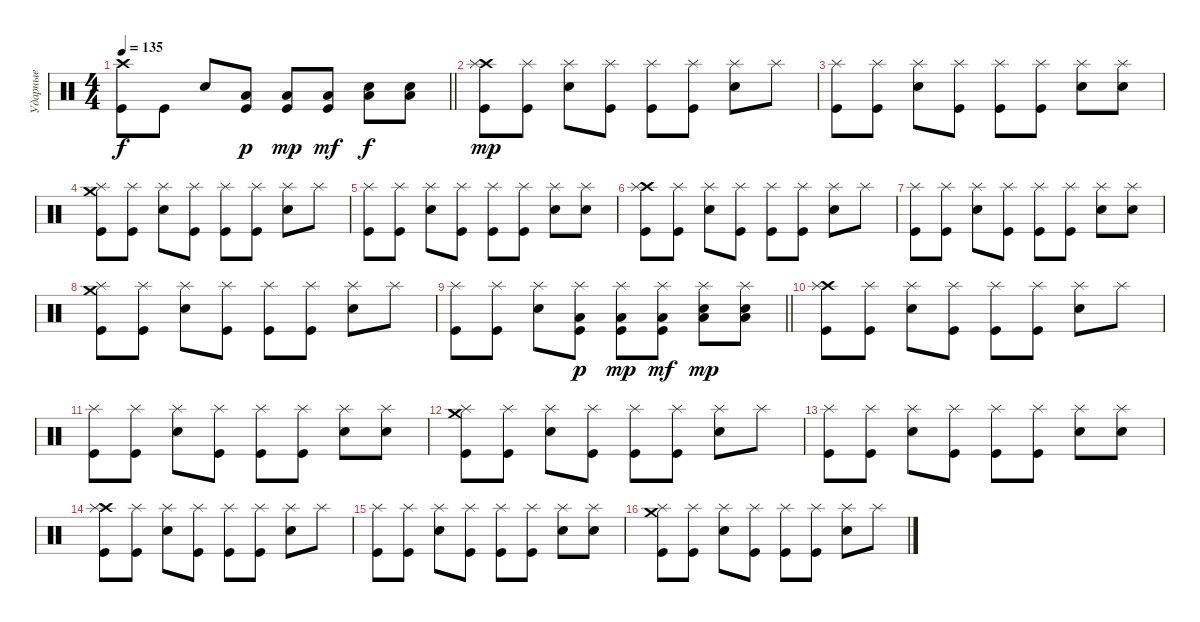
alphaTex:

\track ("Ударные" "Ударные") {instrument percussion}
\staff
\articulation defaults
\ts (4 4)
\tempo 135
\clef neutral
\barLineRight lightlight
\ks c
("Crash high (hit)" "Kick (hit)").8{dy f} "Kick (hit)".8 "Snare (hit) 2".8 ("Low Floor Tom (hit)" "Kick (hit)").8{dy p} ("Low Floor Tom (hit)" "Kick (hit)").8{dy mp} ("Low Floor Tom (hit)" "Kick (hit)").8{dy mf} ("Low Floor Tom (hit)" "Snare (hit) 2").8{dy f} ("Low Floor Tom (hit)" "Snare (hit) 2").8 |
("Crash high (hit)" "Splash (hit)" "Kick (hit)").8{dy mp} ("Splash (hit)" "Kick (hit)").8 ("Splash (hit)" "Snare (hit) 2").8 ("Splash (hit)" "Kick (hit)").8 ("Splash (hit)" "Kick (hit)").8 ("Splash (hit)" "Kick (hit)").8 ("Splash (hit)" "Snare (hit) 2").8 "Splash (hit)".8 |
("Splash (hit)" "Kick (hit)").8 ("Splash (hit)" "Kick (hit)").8 ("Splash (hit)" "Snare (hit) 2").8 ("Splash (hit)" "Kick (hit)").8 ("Splash (hit)" "Kick (hit)").8 ("Splash (hit)" "Kick (hit)").8 ("Splash (hit)" "Snare (hit) 2").8 ("Splash (hit)" "Snare (hit) 2").8 |
("Crash medium (hit)" "Splash (hit)" "Kick (hit)").8 ("Splash (hit)" "Kick (hit)").8 ("Splash (hit)" "Snare (hit) 2").8 ("Splash (hit)" "Kick (hit)").8 ("Splash (hit)" "Kick (hit)").8 ("Splash (hit)" "Kick (hit)").8 ("Splash (hit)" "Snare (hit) 2").8 "Splash (hit)".8 |
("Splash (hit)" "Kick (hit)").8 ("Splash (hit)" "Kick (hit)").8 ("Splash (hit)" "Snare (hit) 2").8 ("Splash (hit)" "Kick (hit)").8 ("Splash (hit)" "Kick (hit)").8 ("Splash (hit)" "Kick (hit)").8 ("Splash (hit)" "Snare (hit) 2").8 ("Splash (hit)" "Snare (hit) 2").8 |
("Crash high (hit)" "Splash (hit)" "Kick (hit)").8 ("Splash (hit)" "Kick (hit)").8 ("Splash (hit)" "Snare (hit) 2").8 ("Splash (hit)" "Kick (hit)").8 ("Splash (hit)" "Kick (hit)").8 ("Splash (hit)" "Kick (hit)").8 ("Splash (hit)" "Snare (hit) 2").8 "Splash (hit)".8 |
("Splash (hit)" "Kick (hit)").8 ("Splash (hit)" "Kick (hit)").8 ("Splash (hit)" "Snare (hit) 2").8 ("Splash (hit)" "Kick (hit)").8 ("Splash (hit)" "Kick (hit)").8 ("Splash (hit)" "Kick (hit)").8 ("Splash (hit)" "Snare (hit) 2").8 ("Splash (hit)" "Snare (hit) 2").8 |
("Crash medium (hit)" "Splash (hit)" "Kick (hit)").8 ("Splash (hit)" "Kick (hit)").8 ("Splash (hit)" "Snare (hit) 2").8 ("Splash (hit)" "Kick (hit)").8 ("Splash (hit)" "Kick (hit)").8 ("Splash (hit)" "Kick (hit)").8 ("Splash (hit)" "Snare (hit) 2").8 "Splash (hit)".8 |
\barLineRight lightlight
("Splash (hit)" "Kick (hit)").8 ("Splash (hit)" "Kick (hit)").8 ("Splash (hit)" "Snare (hit) 2").8 ("Splash (hit)" "Low Floor Tom (hit)" "Kick (hit)").8{dy p} ("Splash (hit)" "Low Floor Tom (hit)" "Kick (hit)").8{dy mp} ("Splash (hit)" "Low Floor Tom (hit)" "Kick (hit)").8{dy mf} ("Splash (hit)" "Low Floor Tom (hit)" "Snare (hit) 2").8{dy mp} ("Splash (hit)" "Low Floor Tom (hit)" "Snare (hit) 2").8 |
("Crash high (hit)" "Splash (hit)" "Kick (hit)").8 ("Splash (hit)" "Kick (hit)").8 ("Splash (hit)" "Snare (hit) 2").8 ("Splash (hit)" "Kick (hit)").8 ("Splash (hit)" "Kick (hit)").8 ("Splash (hit)" "Kick (hit)").8 ("Splash (hit)" "Snare (hit) 2").8 "Splash (hit)".8 |
("Splash (hit)" "Kick (hit)").8 ("Splash (hit)" "Kick (hit)").8 ("Splash (hit)" "Snare (hit) 2").8 ("Splash (hit)" "Kick (hit)").8 ("Splash (hit)" "Kick (hit)").8 ("Splash (hit)" "Kick (hit)").8 ("Splash (hit)" "Snare (hit) 2").8 ("Splash (hit)" "Snare (hit) 2").8 |
("Crash medium (hit)" "Splash (hit)" "Kick (hit)").8 ("Splash (hit)" "Kick (hit)").8 ("Splash (hit)" "Snare (hit) 2").8 ("Splash (hit)" "Kick (hit)").8 ("Splash (hit)" "Kick (hit)").8 ("Splash (hit)" "Kick (hit)").8 ("Splash (hit)" "Snare (hit) 2").8 "Splash (hit)".8 |
("Splash (hit)" "Kick (hit)").8 ("Splash (hit)" "Kick (hit)").8 ("Splash (hit)" "Snare (hit) 2").8 ("Splash (hit)" "Kick (hit)").8 ("Splash (hit)" "Kick (hit)").8 ("Splash (hit)" "Kick (hit)").8 ("Splash (hit)" "Snare (hit) 2").8 ("Splash (hit)" "Snare (hit) 2").8 |
("Crash high (hit)" "Splash (hit)" "Kick (hit)").8 ("Splash (hit)" "Kick (hit)").8 ("Splash (hit)" "Snare (hit) 2").8 ("Splash (hit)" "Kick (hit)").8 ("Splash (hit)" "Kick (hit)").8 ("Splash (hit)" "Kick (hit)").8 ("Splash (hit)" "Snare (hit) 2").8 "Splash (hit)".8 |
("Splash (hit)" "Kick (hit)").8 ("Splash (hit)" "Kick (hit)").8 ("Splash (hit)" "Snare (hit) 2").8 ("Splash (hit)" "Kick (hit)").8 ("Splash (hit)" "Kick (hit)").8 ("Splash (hit)" "Kick (hit)").8 ("Splash (hit)" "Snare (hit) 2").8 ("Splash (hit)" "Snare (hit) 2").8 |
("Crash medium (hit)" "Splash (hit)" "Kick (hit)").8 ("Splash (hit)" "Kick (hit)").8 ("Splash (hit)" "Snare (hit) 2").8 ("Splash (hit)" "Kick (hit)").8 ("Splash (hit)" "Kick (hit)").8 ("Splash (hit)" "Kick (hit)").8 ("Splash (hit)" "Snare (hit) 2").8 "Splash (hit)".8
